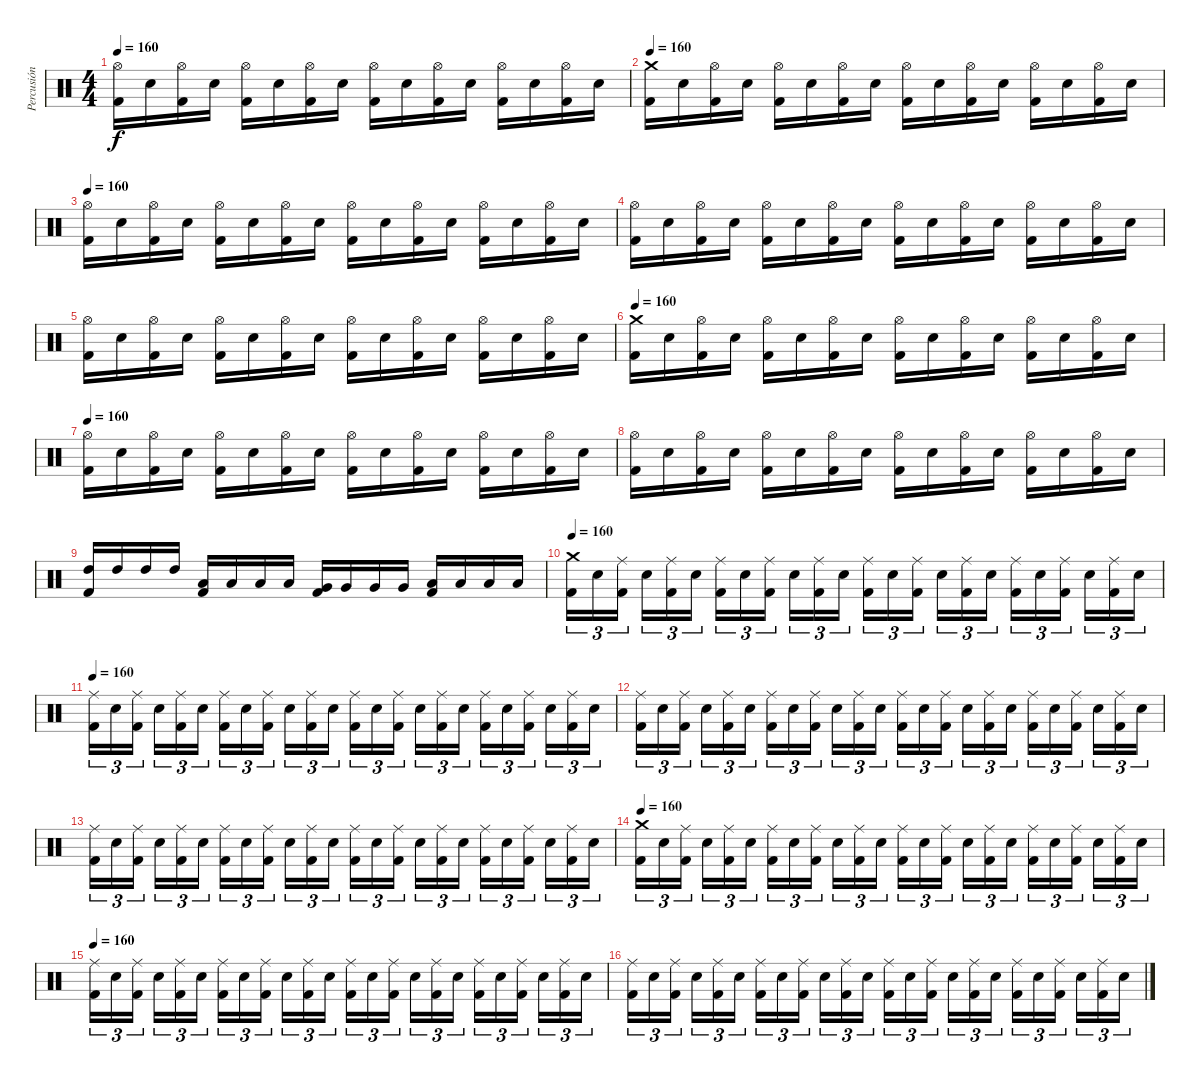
\track ("Percusión" "Percusión") {instrument percussion}
\staff {score}
\articulation defaults
\ts (4 4)
\tempo 160
\clef neutral
\ks c
("Hi-Hat (open)" "Kick (hit) 2").16{dy f} "Electric Snare (hit)".16 ("Hi-Hat (open)" "Kick (hit) 2").16 "Electric Snare (hit)".16 ("Hi-Hat (open)" "Kick (hit) 2").16 "Electric Snare (hit)".16 ("Hi-Hat (open)" "Kick (hit) 2").16 "Electric Snare (hit)".16 ("Hi-Hat (open)" "Kick (hit) 2").16 "Electric Snare (hit)".16 ("Hi-Hat (open)" "Kick (hit) 2").16 "Electric Snare (hit)".16 ("Hi-Hat (open)" "Kick (hit) 2").16 "Electric Snare (hit)".16 ("Hi-Hat (open)" "Kick (hit) 2").16 "Electric Snare (hit)".16 |
\tempo 160
("Crash medium (hit)" "Kick (hit) 2").16 "Electric Snare (hit)".16 ("Hi-Hat (open)" "Kick (hit) 2").16 "Electric Snare (hit)".16 ("Hi-Hat (open)" "Kick (hit) 2").16 "Electric Snare (hit)".16 ("Hi-Hat (open)" "Kick (hit) 2").16 "Electric Snare (hit)".16 ("Hi-Hat (open)" "Kick (hit) 2").16 "Electric Snare (hit)".16 ("Hi-Hat (open)" "Kick (hit) 2").16 "Electric Snare (hit)".16 ("Hi-Hat (open)" "Kick (hit) 2").16 "Electric Snare (hit)".16 ("Hi-Hat (open)" "Kick (hit) 2").16 "Electric Snare (hit)".16 |
\tempo 160
("Hi-Hat (open)" "Kick (hit) 2").16 "Electric Snare (hit)".16 ("Hi-Hat (open)" "Kick (hit) 2").16 "Electric Snare (hit)".16 ("Hi-Hat (open)" "Kick (hit) 2").16 "Electric Snare (hit)".16 ("Hi-Hat (open)" "Kick (hit) 2").16 "Electric Snare (hit)".16 ("Hi-Hat (open)" "Kick (hit) 2").16 "Electric Snare (hit)".16 ("Hi-Hat (open)" "Kick (hit) 2").16 "Electric Snare (hit)".16 ("Hi-Hat (open)" "Kick (hit) 2").16 "Electric Snare (hit)".16 ("Hi-Hat (open)" "Kick (hit) 2").16 "Electric Snare (hit)".16 |
("Hi-Hat (open)" "Kick (hit) 2").16 "Electric Snare (hit)".16 ("Hi-Hat (open)" "Kick (hit) 2").16 "Electric Snare (hit)".16 ("Hi-Hat (open)" "Kick (hit) 2").16 "Electric Snare (hit)".16 ("Hi-Hat (open)" "Kick (hit) 2").16 "Electric Snare (hit)".16 ("Hi-Hat (open)" "Kick (hit) 2").16 "Electric Snare (hit)".16 ("Hi-Hat (open)" "Kick (hit) 2").16 "Electric Snare (hit)".16 ("Hi-Hat (open)" "Kick (hit) 2").16 "Electric Snare (hit)".16 ("Hi-Hat (open)" "Kick (hit) 2").16 "Electric Snare (hit)".16 |
("Hi-Hat (open)" "Kick (hit) 2").16 "Electric Snare (hit)".16 ("Hi-Hat (open)" "Kick (hit) 2").16 "Electric Snare (hit)".16 ("Hi-Hat (open)" "Kick (hit) 2").16 "Electric Snare (hit)".16 ("Hi-Hat (open)" "Kick (hit) 2").16 "Electric Snare (hit)".16 ("Hi-Hat (open)" "Kick (hit) 2").16 "Electric Snare (hit)".16 ("Hi-Hat (open)" "Kick (hit) 2").16 "Electric Snare (hit)".16 ("Hi-Hat (open)" "Kick (hit) 2").16 "Electric Snare (hit)".16 ("Hi-Hat (open)" "Kick (hit) 2").16 "Electric Snare (hit)".16 |
\tempo 160
("Crash medium (hit)" "Kick (hit) 2").16 "Electric Snare (hit)".16 ("Hi-Hat (open)" "Kick (hit) 2").16 "Electric Snare (hit)".16 ("Hi-Hat (open)" "Kick (hit) 2").16 "Electric Snare (hit)".16 ("Hi-Hat (open)" "Kick (hit) 2").16 "Electric Snare (hit)".16 ("Hi-Hat (open)" "Kick (hit) 2").16 "Electric Snare (hit)".16 ("Hi-Hat (open)" "Kick (hit) 2").16 "Electric Snare (hit)".16 ("Hi-Hat (open)" "Kick (hit) 2").16 "Electric Snare (hit)".16 ("Hi-Hat (open)" "Kick (hit) 2").16 "Electric Snare (hit)".16 |
\tempo 160
("Hi-Hat (open)" "Kick (hit) 2").16 "Electric Snare (hit)".16 ("Hi-Hat (open)" "Kick (hit) 2").16 "Electric Snare (hit)".16 ("Hi-Hat (open)" "Kick (hit) 2").16 "Electric Snare (hit)".16 ("Hi-Hat (open)" "Kick (hit) 2").16 "Electric Snare (hit)".16 ("Hi-Hat (open)" "Kick (hit) 2").16 "Electric Snare (hit)".16 ("Hi-Hat (open)" "Kick (hit) 2").16 "Electric Snare (hit)".16 ("Hi-Hat (open)" "Kick (hit) 2").16 "Electric Snare (hit)".16 ("Hi-Hat (open)" "Kick (hit) 2").16 "Electric Snare (hit)".16 |
("Hi-Hat (open)" "Kick (hit) 2").16 "Electric Snare (hit)".16 ("Hi-Hat (open)" "Kick (hit) 2").16 "Electric Snare (hit)".16 ("Hi-Hat (open)" "Kick (hit) 2").16 "Electric Snare (hit)".16 ("Hi-Hat (open)" "Kick (hit) 2").16 "Electric Snare (hit)".16 ("Hi-Hat (open)" "Kick (hit) 2").16 "Electric Snare (hit)".16 ("Hi-Hat (open)" "Kick (hit) 2").16 "Electric Snare (hit)".16 ("Hi-Hat (open)" "Kick (hit) 2").16 "Electric Snare (hit)".16 ("Hi-Hat (open)" "Kick (hit) 2").16 "Electric Snare (hit)".16 |
("High Tom (hit)" "Kick (hit) 2").16 "High Tom (hit)".16 "High Tom (hit)".16 "High Tom (hit)".16 ("Low Tom (hit)" "Kick (hit) 2").16 "Low Tom (hit)".16 "Low Tom (hit)".16 "Low Tom (hit)".16 ("Very Low Tom (hit)" "Kick (hit) 2").16 "Very Low Tom (hit)".16 "Very Low Tom (hit)".16 "Very Low Tom (hit)".16 ("Low Floor Tom (hit)" "Kick (hit) 2").16 "Low Floor Tom (hit)".16 "Low Floor Tom (hit)".16 "Low Floor Tom (hit)".16 |
\tempo 160
("Crash medium (hit)" "Kick (hit) 2").16{tu (3 2)} "Electric Snare (hit)".16{tu (3 2)} ("Ride (middle)" "Kick (hit) 2").16{tu (3 2) beam splitsecondary} "Electric Snare (hit)".16{tu (3 2)} ("Ride (middle)" "Kick (hit) 2").16{tu (3 2)} "Electric Snare (hit)".16{tu (3 2)} ("Ride (middle)" "Kick (hit) 2").16{tu (3 2)} "Electric Snare (hit)".16{tu (3 2)} ("Ride (middle)" "Kick (hit) 2").16{tu (3 2) beam splitsecondary} "Electric Snare (hit)".16{tu (3 2)} ("Ride (middle)" "Kick (hit) 2").16{tu (3 2)} "Electric Snare (hit)".16{tu (3 2)} ("Ride (middle)" "Kick (hit) 2").16{tu (3 2)} "Electric Snare (hit)".16{tu (3 2)} ("Ride (middle)" "Kick (hit) 2").16{tu (3 2) beam splitsecondary} "Electric Snare (hit)".16{tu (3 2)} ("Ride (middle)" "Kick (hit) 2").16{tu (3 2)} "Electric Snare (hit)".16{tu (3 2)} ("Ride (middle)" "Kick (hit) 2").16{tu (3 2)} "Electric Snare (hit)".16{tu (3 2)} ("Ride (middle)" "Kick (hit) 2").16{tu (3 2) beam splitsecondary} "Electric Snare (hit)".16{tu (3 2)} ("Ride (middle)" "Kick (hit) 2").16{tu (3 2)} "Electric Snare (hit)".16{tu (3 2)} |
\tempo 160
("Ride (middle)" "Kick (hit) 2").16{tu (3 2)} "Electric Snare (hit)".16{tu (3 2)} ("Ride (middle)" "Kick (hit) 2").16{tu (3 2) beam splitsecondary} "Electric Snare (hit)".16{tu (3 2)} ("Ride (middle)" "Kick (hit) 2").16{tu (3 2)} "Electric Snare (hit)".16{tu (3 2)} ("Ride (middle)" "Kick (hit) 2").16{tu (3 2)} "Electric Snare (hit)".16{tu (3 2)} ("Ride (middle)" "Kick (hit) 2").16{tu (3 2) beam splitsecondary} "Electric Snare (hit)".16{tu (3 2)} ("Ride (middle)" "Kick (hit) 2").16{tu (3 2)} "Electric Snare (hit)".16{tu (3 2)} ("Ride (middle)" "Kick (hit) 2").16{tu (3 2)} "Electric Snare (hit)".16{tu (3 2)} ("Ride (middle)" "Kick (hit) 2").16{tu (3 2) beam splitsecondary} "Electric Snare (hit)".16{tu (3 2)} ("Ride (middle)" "Kick (hit) 2").16{tu (3 2)} "Electric Snare (hit)".16{tu (3 2)} ("Ride (middle)" "Kick (hit) 2").16{tu (3 2)} "Electric Snare (hit)".16{tu (3 2)} ("Ride (middle)" "Kick (hit) 2").16{tu (3 2) beam splitsecondary} "Electric Snare (hit)".16{tu (3 2)} ("Ride (middle)" "Kick (hit) 2").16{tu (3 2)} "Electric Snare (hit)".16{tu (3 2)} |
("Ride (middle)" "Kick (hit) 2").16{tu (3 2)} "Electric Snare (hit)".16{tu (3 2)} ("Ride (middle)" "Kick (hit) 2").16{tu (3 2) beam splitsecondary} "Electric Snare (hit)".16{tu (3 2)} ("Ride (middle)" "Kick (hit) 2").16{tu (3 2)} "Electric Snare (hit)".16{tu (3 2)} ("Ride (middle)" "Kick (hit) 2").16{tu (3 2)} "Electric Snare (hit)".16{tu (3 2)} ("Ride (middle)" "Kick (hit) 2").16{tu (3 2) beam splitsecondary} "Electric Snare (hit)".16{tu (3 2)} ("Ride (middle)" "Kick (hit) 2").16{tu (3 2)} "Electric Snare (hit)".16{tu (3 2)} ("Ride (middle)" "Kick (hit) 2").16{tu (3 2)} "Electric Snare (hit)".16{tu (3 2)} ("Ride (middle)" "Kick (hit) 2").16{tu (3 2) beam splitsecondary} "Electric Snare (hit)".16{tu (3 2)} ("Ride (middle)" "Kick (hit) 2").16{tu (3 2)} "Electric Snare (hit)".16{tu (3 2)} ("Ride (middle)" "Kick (hit) 2").16{tu (3 2)} "Electric Snare (hit)".16{tu (3 2)} ("Ride (middle)" "Kick (hit) 2").16{tu (3 2) beam splitsecondary} "Electric Snare (hit)".16{tu (3 2)} ("Ride (middle)" "Kick (hit) 2").16{tu (3 2)} "Electric Snare (hit)".16{tu (3 2)} |
("Ride (middle)" "Kick (hit) 2").16{tu (3 2)} "Electric Snare (hit)".16{tu (3 2)} ("Ride (middle)" "Kick (hit) 2").16{tu (3 2) beam splitsecondary} "Electric Snare (hit)".16{tu (3 2)} ("Ride (middle)" "Kick (hit) 2").16{tu (3 2)} "Electric Snare (hit)".16{tu (3 2)} ("Ride (middle)" "Kick (hit) 2").16{tu (3 2)} "Electric Snare (hit)".16{tu (3 2)} ("Ride (middle)" "Kick (hit) 2").16{tu (3 2) beam splitsecondary} "Electric Snare (hit)".16{tu (3 2)} ("Ride (middle)" "Kick (hit) 2").16{tu (3 2)} "Electric Snare (hit)".16{tu (3 2)} ("Ride (middle)" "Kick (hit) 2").16{tu (3 2)} "Electric Snare (hit)".16{tu (3 2)} ("Ride (middle)" "Kick (hit) 2").16{tu (3 2) beam splitsecondary} "Electric Snare (hit)".16{tu (3 2)} ("Ride (middle)" "Kick (hit) 2").16{tu (3 2)} "Electric Snare (hit)".16{tu (3 2)} ("Ride (middle)" "Kick (hit) 2").16{tu (3 2)} "Electric Snare (hit)".16{tu (3 2)} ("Ride (middle)" "Kick (hit) 2").16{tu (3 2) beam splitsecondary} "Electric Snare (hit)".16{tu (3 2)} ("Ride (middle)" "Kick (hit) 2").16{tu (3 2)} "Electric Snare (hit)".16{tu (3 2)} |
\tempo 160
("Crash medium (hit)" "Kick (hit) 2").16{tu (3 2)} "Electric Snare (hit)".16{tu (3 2)} ("Ride (middle)" "Kick (hit) 2").16{tu (3 2) beam splitsecondary} "Electric Snare (hit)".16{tu (3 2)} ("Ride (middle)" "Kick (hit) 2").16{tu (3 2)} "Electric Snare (hit)".16{tu (3 2)} ("Ride (middle)" "Kick (hit) 2").16{tu (3 2)} "Electric Snare (hit)".16{tu (3 2)} ("Ride (middle)" "Kick (hit) 2").16{tu (3 2) beam splitsecondary} "Electric Snare (hit)".16{tu (3 2)} ("Ride (middle)" "Kick (hit) 2").16{tu (3 2)} "Electric Snare (hit)".16{tu (3 2)} ("Ride (middle)" "Kick (hit) 2").16{tu (3 2)} "Electric Snare (hit)".16{tu (3 2)} ("Ride (middle)" "Kick (hit) 2").16{tu (3 2) beam splitsecondary} "Electric Snare (hit)".16{tu (3 2)} ("Ride (middle)" "Kick (hit) 2").16{tu (3 2)} "Electric Snare (hit)".16{tu (3 2)} ("Ride (middle)" "Kick (hit) 2").16{tu (3 2)} "Electric Snare (hit)".16{tu (3 2)} ("Ride (middle)" "Kick (hit) 2").16{tu (3 2) beam splitsecondary} "Electric Snare (hit)".16{tu (3 2)} ("Ride (middle)" "Kick (hit) 2").16{tu (3 2)} "Electric Snare (hit)".16{tu (3 2)} |
\tempo 160
("Ride (middle)" "Kick (hit) 2").16{tu (3 2)} "Electric Snare (hit)".16{tu (3 2)} ("Ride (middle)" "Kick (hit) 2").16{tu (3 2) beam splitsecondary} "Electric Snare (hit)".16{tu (3 2)} ("Ride (middle)" "Kick (hit) 2").16{tu (3 2)} "Electric Snare (hit)".16{tu (3 2)} ("Ride (middle)" "Kick (hit) 2").16{tu (3 2)} "Electric Snare (hit)".16{tu (3 2)} ("Ride (middle)" "Kick (hit) 2").16{tu (3 2) beam splitsecondary} "Electric Snare (hit)".16{tu (3 2)} ("Ride (middle)" "Kick (hit) 2").16{tu (3 2)} "Electric Snare (hit)".16{tu (3 2)} ("Ride (middle)" "Kick (hit) 2").16{tu (3 2)} "Electric Snare (hit)".16{tu (3 2)} ("Ride (middle)" "Kick (hit) 2").16{tu (3 2) beam splitsecondary} "Electric Snare (hit)".16{tu (3 2)} ("Ride (middle)" "Kick (hit) 2").16{tu (3 2)} "Electric Snare (hit)".16{tu (3 2)} ("Ride (middle)" "Kick (hit) 2").16{tu (3 2)} "Electric Snare (hit)".16{tu (3 2)} ("Ride (middle)" "Kick (hit) 2").16{tu (3 2) beam splitsecondary} "Electric Snare (hit)".16{tu (3 2)} ("Ride (middle)" "Kick (hit) 2").16{tu (3 2)} "Electric Snare (hit)".16{tu (3 2)} |
("Ride (middle)" "Kick (hit) 2").16{tu (3 2)} "Electric Snare (hit)".16{tu (3 2)} ("Ride (middle)" "Kick (hit) 2").16{tu (3 2) beam splitsecondary} "Electric Snare (hit)".16{tu (3 2)} ("Ride (middle)" "Kick (hit) 2").16{tu (3 2)} "Electric Snare (hit)".16{tu (3 2)} ("Ride (middle)" "Kick (hit) 2").16{tu (3 2)} "Electric Snare (hit)".16{tu (3 2)} ("Ride (middle)" "Kick (hit) 2").16{tu (3 2) beam splitsecondary} "Electric Snare (hit)".16{tu (3 2)} ("Ride (middle)" "Kick (hit) 2").16{tu (3 2)} "Electric Snare (hit)".16{tu (3 2)} ("Ride (middle)" "Kick (hit) 2").16{tu (3 2)} "Electric Snare (hit)".16{tu (3 2)} ("Ride (middle)" "Kick (hit) 2").16{tu (3 2) beam splitsecondary} "Electric Snare (hit)".16{tu (3 2)} ("Ride (middle)" "Kick (hit) 2").16{tu (3 2)} "Electric Snare (hit)".16{tu (3 2)} ("Ride (middle)" "Kick (hit) 2").16{tu (3 2)} "Electric Snare (hit)".16{tu (3 2)} ("Ride (middle)" "Kick (hit) 2").16{tu (3 2) beam splitsecondary} "Electric Snare (hit)".16{tu (3 2)} ("Ride (middle)" "Kick (hit) 2").16{tu (3 2)} "Electric Snare (hit)".16{tu (3 2)}
